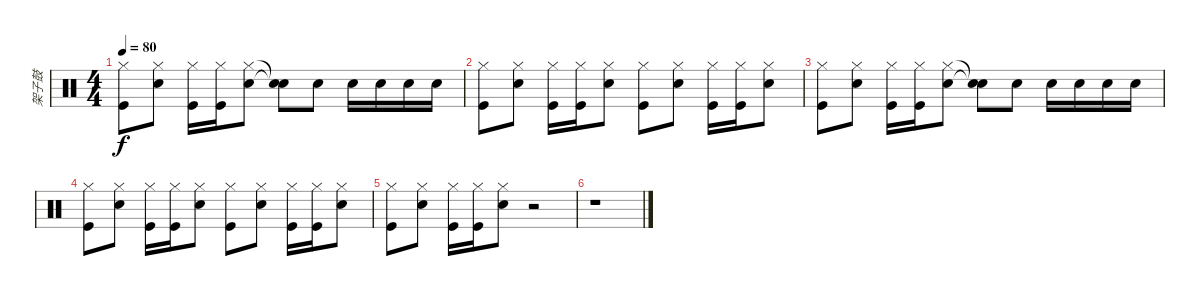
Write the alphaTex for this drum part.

\track ("架子鼓" "架子鼓") {instrument percussion}
\staff {score}
\articulation defaults
\ts (4 4)
\tempo 80
\clef neutral
\ks c
("Hi-Hat (closed)" "Kick (hit)").8{dy f} ("Hi-Hat (closed)" "Electric Snare (hit)").8 ("Hi-Hat (closed)" "Kick (hit)").16 ("Hi-Hat (closed)" "Kick (hit)").16 ("Hi-Hat (closed)" "Electric Snare (hit)").8 ("Snare (hit)"{t} "Snare (hit)"{t}).8 "Electric Snare (hit)".8 "Electric Snare (hit)".16 "Electric Snare (hit)".16 "Electric Snare (hit)".16 "Electric Snare (hit)".16 |
("Hi-Hat (closed)" "Kick (hit)").8 ("Hi-Hat (closed)" "Electric Snare (hit)").8 ("Hi-Hat (closed)" "Kick (hit)").16 ("Hi-Hat (closed)" "Kick (hit)").16 ("Hi-Hat (closed)" "Electric Snare (hit)").8 ("Hi-Hat (closed)" "Kick (hit)").8 ("Hi-Hat (closed)" "Electric Snare (hit)").8 ("Hi-Hat (closed)" "Kick (hit)").16 ("Hi-Hat (closed)" "Kick (hit)").16 ("Hi-Hat (closed)" "Electric Snare (hit)").8 |
("Hi-Hat (closed)" "Kick (hit)").8 ("Hi-Hat (closed)" "Electric Snare (hit)").8 ("Hi-Hat (closed)" "Kick (hit)").16 ("Hi-Hat (closed)" "Kick (hit)").16 ("Hi-Hat (closed)" "Electric Snare (hit)").8 ("Snare (hit)"{t} "Snare (hit)"{t}).8 "Electric Snare (hit)".8 "Electric Snare (hit)".16 "Electric Snare (hit)".16 "Electric Snare (hit)".16 "Electric Snare (hit)".16 |
("Hi-Hat (closed)" "Kick (hit)").8 ("Hi-Hat (closed)" "Electric Snare (hit)").8 ("Hi-Hat (closed)" "Kick (hit)").16 ("Hi-Hat (closed)" "Kick (hit)").16 ("Hi-Hat (closed)" "Electric Snare (hit)").8 ("Hi-Hat (closed)" "Kick (hit)").8 ("Hi-Hat (closed)" "Electric Snare (hit)").8 ("Hi-Hat (closed)" "Kick (hit)").16 ("Hi-Hat (closed)" "Kick (hit)").16 ("Hi-Hat (closed)" "Electric Snare (hit)").8 |
("Hi-Hat (closed)" "Kick (hit)").8 ("Hi-Hat (closed)" "Electric Snare (hit)").8 ("Hi-Hat (closed)" "Kick (hit)").16 ("Hi-Hat (closed)" "Kick (hit)").16 ("Hi-Hat (closed)" "Electric Snare (hit)").8 r.2 |
r.1
